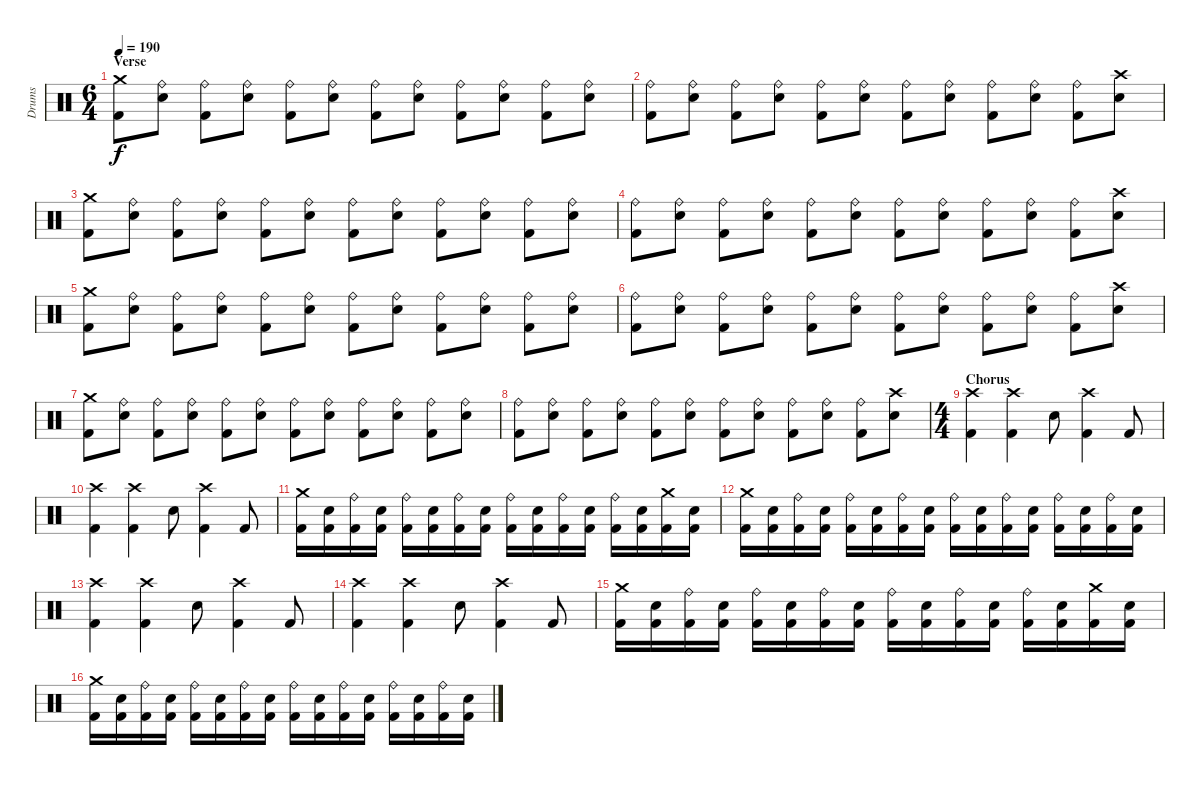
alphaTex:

\track ("Drums" "Drums") {instrument percussion}
\staff {score}
\articulation defaults
\ts (6 4)
\section ("" "Verse")
\tempo 190
\clef neutral
\ks c
("Crash medium (hit)" "Kick (hit) 2").8{dy f} ("Ride (bell)" "Snare (hit) 2").8 ("Ride (bell)" "Kick (hit) 2").8 ("Ride (bell)" "Snare (hit) 2").8 ("Ride (bell)" "Kick (hit) 2").8 ("Ride (bell)" "Snare (hit) 2").8 ("Ride (bell)" "Kick (hit) 2").8 ("Ride (bell)" "Snare (hit) 2").8 ("Ride (bell)" "Kick (hit) 2").8 ("Ride (bell)" "Snare (hit) 2").8 ("Ride (bell)" "Kick (hit) 2").8 ("Ride (bell)" "Snare (hit) 2").8 |
("Ride (bell)" "Kick (hit) 2").8 ("Ride (bell)" "Snare (hit) 2").8 ("Ride (bell)" "Kick (hit) 2").8 ("Ride (bell)" "Snare (hit) 2").8 ("Ride (bell)" "Kick (hit) 2").8 ("Ride (bell)" "Snare (hit) 2").8 ("Ride (bell)" "Kick (hit) 2").8 ("Ride (bell)" "Snare (hit) 2").8 ("Ride (bell)" "Kick (hit) 2").8 ("Ride (bell)" "Snare (hit) 2").8 ("Ride (bell)" "Kick (hit) 2").8 ("Crash high (hit)" "Snare (hit) 2").8 |
("Crash medium (hit)" "Kick (hit) 2").8 ("Ride (bell)" "Snare (hit) 2").8 ("Ride (bell)" "Kick (hit) 2").8 ("Ride (bell)" "Snare (hit) 2").8 ("Ride (bell)" "Kick (hit) 2").8 ("Ride (bell)" "Snare (hit) 2").8 ("Ride (bell)" "Kick (hit) 2").8 ("Ride (bell)" "Snare (hit) 2").8 ("Ride (bell)" "Kick (hit) 2").8 ("Ride (bell)" "Snare (hit) 2").8 ("Ride (bell)" "Kick (hit) 2").8 ("Ride (bell)" "Snare (hit) 2").8 |
("Ride (bell)" "Kick (hit) 2").8 ("Ride (bell)" "Snare (hit) 2").8 ("Ride (bell)" "Kick (hit) 2").8 ("Ride (bell)" "Snare (hit) 2").8 ("Ride (bell)" "Kick (hit) 2").8 ("Ride (bell)" "Snare (hit) 2").8 ("Ride (bell)" "Kick (hit) 2").8 ("Ride (bell)" "Snare (hit) 2").8 ("Ride (bell)" "Kick (hit) 2").8 ("Ride (bell)" "Snare (hit) 2").8 ("Ride (bell)" "Kick (hit) 2").8 ("Crash high (hit)" "Snare (hit) 2").8 |
("Crash medium (hit)" "Kick (hit) 2").8 ("Ride (bell)" "Snare (hit) 2").8 ("Ride (bell)" "Kick (hit) 2").8 ("Ride (bell)" "Snare (hit) 2").8 ("Ride (bell)" "Kick (hit) 2").8 ("Ride (bell)" "Snare (hit) 2").8 ("Ride (bell)" "Kick (hit) 2").8 ("Ride (bell)" "Snare (hit) 2").8 ("Ride (bell)" "Kick (hit) 2").8 ("Ride (bell)" "Snare (hit) 2").8 ("Ride (bell)" "Kick (hit) 2").8 ("Ride (bell)" "Snare (hit) 2").8 |
("Ride (bell)" "Kick (hit) 2").8 ("Ride (bell)" "Snare (hit) 2").8 ("Ride (bell)" "Kick (hit) 2").8 ("Ride (bell)" "Snare (hit) 2").8 ("Ride (bell)" "Kick (hit) 2").8 ("Ride (bell)" "Snare (hit) 2").8 ("Ride (bell)" "Kick (hit) 2").8 ("Ride (bell)" "Snare (hit) 2").8 ("Ride (bell)" "Kick (hit) 2").8 ("Ride (bell)" "Snare (hit) 2").8 ("Ride (bell)" "Kick (hit) 2").8 ("Crash high (hit)" "Snare (hit) 2").8 |
("Crash medium (hit)" "Kick (hit) 2").8 ("Ride (bell)" "Snare (hit) 2").8 ("Ride (bell)" "Kick (hit) 2").8 ("Ride (bell)" "Snare (hit) 2").8 ("Ride (bell)" "Kick (hit) 2").8 ("Ride (bell)" "Snare (hit) 2").8 ("Ride (bell)" "Kick (hit) 2").8 ("Ride (bell)" "Snare (hit) 2").8 ("Ride (bell)" "Kick (hit) 2").8 ("Ride (bell)" "Snare (hit) 2").8 ("Ride (bell)" "Kick (hit) 2").8 ("Ride (bell)" "Snare (hit) 2").8 |
("Ride (bell)" "Kick (hit) 2").8 ("Ride (bell)" "Snare (hit) 2").8 ("Ride (bell)" "Kick (hit) 2").8 ("Ride (bell)" "Snare (hit) 2").8 ("Ride (bell)" "Kick (hit) 2").8 ("Ride (bell)" "Snare (hit) 2").8 ("Ride (bell)" "Kick (hit) 2").8 ("Ride (bell)" "Snare (hit) 2").8 ("Ride (bell)" "Kick (hit) 2").8 ("Ride (bell)" "Snare (hit) 2").8 ("Ride (bell)" "Kick (hit) 2").8 ("Crash high (hit)" "Snare (hit) 2").8 |
\ts (4 4)
\section ("" "Chorus")
("Crash high (hit)" "Kick (hit) 2").4 ("Crash high (hit)" "Kick (hit) 2").4 "Snare (hit) 2".8 ("Crash high (hit)" "Kick (hit) 2").4 "Kick (hit) 2".8 |
("Crash high (hit)" "Kick (hit) 2").4 ("Crash high (hit)" "Kick (hit) 2").4 "Snare (hit) 2".8 ("Crash high (hit)" "Kick (hit) 2").4 "Kick (hit) 2".8 |
("Crash medium (hit)" "Kick (hit) 2").16 ("Snare (hit) 2" "Kick (hit) 2").16 ("Ride (bell)" "Kick (hit) 2").16 ("Snare (hit) 2" "Kick (hit) 2").16 ("Ride (bell)" "Kick (hit) 2").16 ("Snare (hit) 2" "Kick (hit) 2").16 ("Ride (bell)" "Kick (hit) 2").16 ("Snare (hit) 2" "Kick (hit) 2").16 ("Ride (bell)" "Kick (hit) 2").16 ("Snare (hit) 2" "Kick (hit) 2").16 ("Ride (bell)" "Kick (hit) 2").16 ("Snare (hit) 2" "Kick (hit) 2").16 ("Ride (bell)" "Kick (hit) 2").16 ("Snare (hit) 2" "Kick (hit) 2").16 ("Crash medium (hit)" "Kick (hit) 2").16 ("Snare (hit) 2" "Kick (hit) 2").16 |
("Crash medium (hit)" "Kick (hit) 2").16 ("Snare (hit) 2" "Kick (hit) 2").16 ("Ride (bell)" "Kick (hit) 2").16 ("Snare (hit) 2" "Kick (hit) 2").16 ("Ride (bell)" "Kick (hit) 2").16 ("Snare (hit) 2" "Kick (hit) 2").16 ("Ride (bell)" "Kick (hit) 2").16 ("Snare (hit) 2" "Kick (hit) 2").16 ("Ride (bell)" "Kick (hit) 2").16 ("Snare (hit) 2" "Kick (hit) 2").16 ("Ride (bell)" "Kick (hit) 2").16 ("Snare (hit) 2" "Kick (hit) 2").16 ("Ride (bell)" "Kick (hit) 2").16 ("Snare (hit) 2" "Kick (hit) 2").16 ("Ride (bell)" "Kick (hit) 2").16 ("Snare (hit) 2" "Kick (hit) 2").16 |
("Crash high (hit)" "Kick (hit) 2").4 ("Crash high (hit)" "Kick (hit) 2").4 "Snare (hit) 2".8 ("Crash high (hit)" "Kick (hit) 2").4 "Kick (hit) 2".8 |
("Crash high (hit)" "Kick (hit) 2").4 ("Crash high (hit)" "Kick (hit) 2").4 "Snare (hit) 2".8 ("Crash high (hit)" "Kick (hit) 2").4 "Kick (hit) 2".8 |
("Crash medium (hit)" "Kick (hit) 2").16 ("Snare (hit) 2" "Kick (hit) 2").16 ("Ride (bell)" "Kick (hit) 2").16 ("Snare (hit) 2" "Kick (hit) 2").16 ("Ride (bell)" "Kick (hit) 2").16 ("Snare (hit) 2" "Kick (hit) 2").16 ("Ride (bell)" "Kick (hit) 2").16 ("Snare (hit) 2" "Kick (hit) 2").16 ("Ride (bell)" "Kick (hit) 2").16 ("Snare (hit) 2" "Kick (hit) 2").16 ("Ride (bell)" "Kick (hit) 2").16 ("Snare (hit) 2" "Kick (hit) 2").16 ("Ride (bell)" "Kick (hit) 2").16 ("Snare (hit) 2" "Kick (hit) 2").16 ("Crash medium (hit)" "Kick (hit) 2").16 ("Snare (hit) 2" "Kick (hit) 2").16 |
("Crash medium (hit)" "Kick (hit) 2").16 ("Snare (hit) 2" "Kick (hit) 2").16 ("Ride (bell)" "Kick (hit) 2").16 ("Snare (hit) 2" "Kick (hit) 2").16 ("Ride (bell)" "Kick (hit) 2").16 ("Snare (hit) 2" "Kick (hit) 2").16 ("Ride (bell)" "Kick (hit) 2").16 ("Snare (hit) 2" "Kick (hit) 2").16 ("Ride (bell)" "Kick (hit) 2").16 ("Snare (hit) 2" "Kick (hit) 2").16 ("Ride (bell)" "Kick (hit) 2").16 ("Snare (hit) 2" "Kick (hit) 2").16 ("Ride (bell)" "Kick (hit) 2").16 ("Snare (hit) 2" "Kick (hit) 2").16 ("Ride (bell)" "Kick (hit) 2").16 ("Snare (hit) 2" "Kick (hit) 2").16
